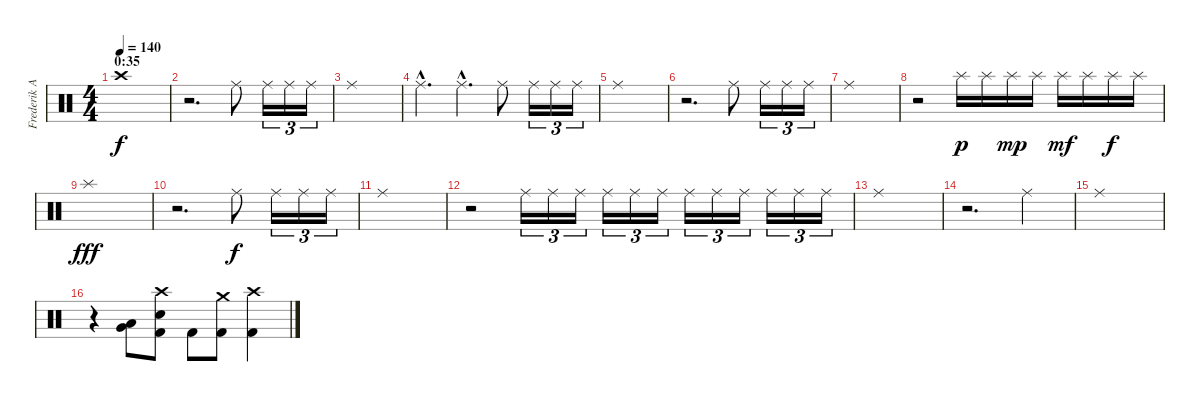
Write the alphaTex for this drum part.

\track ("Frederik Anderson" "Frederik A") {instrument percussion}
\staff {score}
\articulation defaults
\ts (4 4)
\section ("" "0:35")
\tempo 140
\clef neutral
\ks c "Crash high (hit)".1{dy f}
|
r.2{d} "Ride (middle)".8 "Ride (middle)".16{tu (3 2)} "Ride (middle)".16{tu (3 2)} "Ride (middle)".16{tu (3 2)} |
"Ride (middle)".1 |
"Ride (middle)"{hac}.4{d} "Ride (middle)"{hac}.4{d} "Ride (middle)".8 "Ride (middle)".16{tu (3 2)} "Ride (middle)".16{tu (3 2)} "Ride (middle)".16{tu (3 2)} |
"Ride (middle)".1 |
r.2{d} "Ride (middle)".8 "Ride (middle)".16{tu (3 2)} "Ride (middle)".16{tu (3 2)} "Ride (middle)".16{tu (3 2)} |
"Ride (middle)".1 |
r.2 "Splash (hit)".16{dy p} "Splash (hit)".16 "Splash (hit)".16{dy mp} "Splash (hit)".16 "Splash (hit)".16{dy mf} "Splash (hit)".16 "Splash (hit)".16{dy f} "Splash (hit)".16 |
"Splash (hit)".1{dy fff} |
r.2{d} "Ride (middle)".8{dy f} "Ride (middle)".16{tu (3 2)} "Ride (middle)".16{tu (3 2)} "Ride (middle)".16{tu (3 2)} |
"Ride (middle)".1 |
r.2 "Ride (middle)".16{tu (3 2)} "Ride (middle)".16{tu (3 2)} "Ride (middle)".16{tu (3 2)} "Ride (middle)".16{tu (3 2)} "Ride (middle)".16{tu (3 2)} "Ride (middle)".16{tu (3 2)} "Ride (middle)".16{tu (3 2)} "Ride (middle)".16{tu (3 2)} "Ride (middle)".16{tu (3 2)} "Ride (middle)".16{tu (3 2)} "Ride (middle)".16{tu (3 2)} "Ride (middle)".16{tu (3 2)} |
"Ride (middle)".1 |
r.2{d} "Ride (middle)".4 |
"Ride (middle)".1 |
r.4 ("Very Low Tom (hit)" "Low Floor Tom (hit)").8 ("Crash high (hit)" "Electric Snare (hit)" "Kick (hit) 2").8 "Kick (hit) 2".8 ("Crash medium (hit)" "Kick (hit) 2").8 ("Crash high (hit)" "Kick (hit) 2").4
